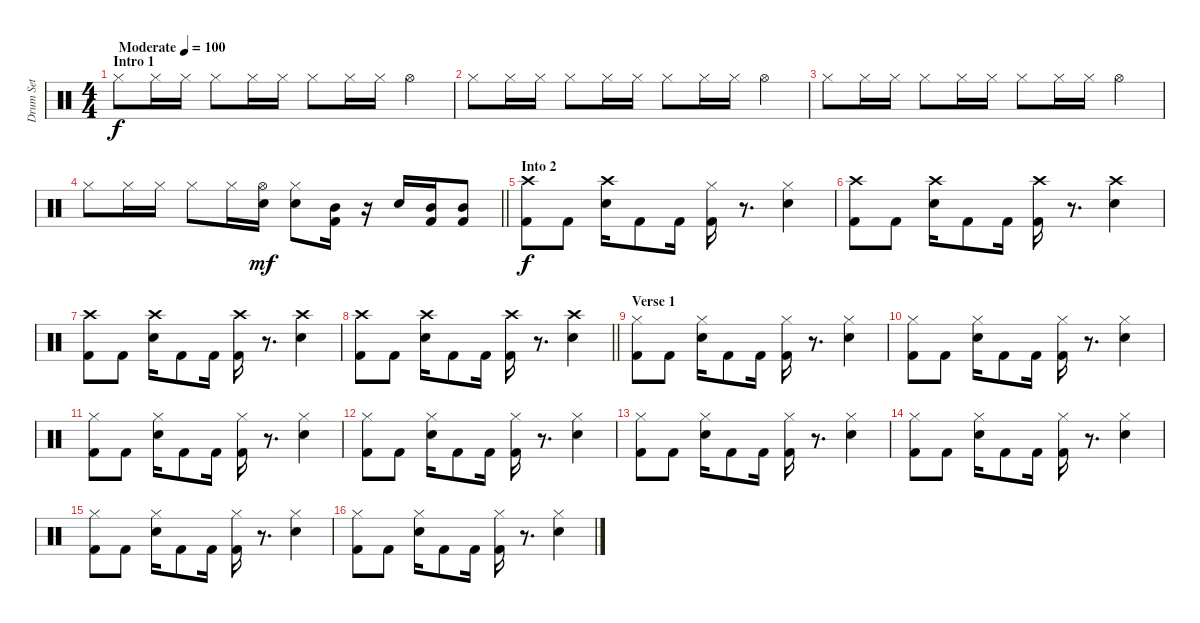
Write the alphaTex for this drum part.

\track ("Drum Set" "Drum Set") {instrument percussion}
\staff {score}
\articulation defaults
\ts (4 4)
\section ("" "Intro 1")
\tempo (100 "Moderate")
\clef neutral
\ks c "Hi-Hat (closed)".8{dy f} "Hi-Hat (closed)".16 "Hi-Hat (closed)".16 "Hi-Hat (closed)".8 "Hi-Hat (closed)".16 "Hi-Hat (closed)".16 "Hi-Hat (closed)".8 "Hi-Hat (closed)".16 "Hi-Hat (closed)".16 "Hi-Hat (open)".4
|
"Hi-Hat (closed)".8 "Hi-Hat (closed)".16 "Hi-Hat (closed)".16 "Hi-Hat (closed)".8 "Hi-Hat (closed)".16 "Hi-Hat (closed)".16 "Hi-Hat (closed)".8 "Hi-Hat (closed)".16 "Hi-Hat (closed)".16 "Hi-Hat (open)".4 |
"Hi-Hat (closed)".8 "Hi-Hat (closed)".16 "Hi-Hat (closed)".16 "Hi-Hat (closed)".8 "Hi-Hat (closed)".16 "Hi-Hat (closed)".16 "Hi-Hat (closed)".8 "Hi-Hat (closed)".16 "Hi-Hat (closed)".16 "Hi-Hat (open)".4 |
\barLineRight lightlight "Hi-Hat (closed)".8 "Hi-Hat (closed)".16 "Hi-Hat (closed)".16 "Hi-Hat (closed)".8 "Hi-Hat (closed)".16
("Hi-Hat (open)" "Snare (hit) 2").16{dy mf} ("Hi-Hat (closed)" "Snare (hit) 2").8 ("Mid Tom (hit)" "Kick (hit) 2").16 r.16 "Snare (hit) 2".16 ("Mid Tom (hit)" "Kick (hit) 2").16 ("Mid Tom (hit)" "Kick (hit) 2").8 |
\section ("" "Into 2")
("Crash high (hit)" "Kick (hit) 2").8{dy f} "Kick (hit) 2".8 ("Crash high (hit)" "Snare (hit) 2").16 "Kick (hit) 2".8 "Kick (hit) 2".16 ("Hi-Hat (closed)" "Kick (hit) 2").16 r.8{d} ("Hi-Hat (closed)" "Snare (hit) 2").4 |
("Crash high (hit)" "Kick (hit) 2").8 "Kick (hit) 2".8 ("Crash high (hit)" "Snare (hit) 2").16 "Kick (hit) 2".8 "Kick (hit) 2".16 ("Crash high (hit)" "Kick (hit) 2").16 r.8{d} ("Crash high (hit)" "Snare (hit) 2").4 |
("Crash high (hit)" "Kick (hit) 2").8 "Kick (hit) 2".8 ("Crash high (hit)" "Snare (hit) 2").16 "Kick (hit) 2".8 "Kick (hit) 2".16 ("Crash high (hit)" "Kick (hit) 2").16 r.8{d} ("Crash high (hit)" "Snare (hit) 2").4 |
\barLineRight lightlight
("Crash high (hit)" "Kick (hit) 2").8 "Kick (hit) 2".8 ("Crash high (hit)" "Snare (hit) 2").16 "Kick (hit) 2".8 "Kick (hit) 2".16 ("Crash high (hit)" "Kick (hit) 2").16 r.8{d} ("Crash high (hit)" "Snare (hit) 2").4 |
\section ("" "Verse 1")
("Hi-Hat (closed)" "Kick (hit) 2").8 "Kick (hit) 2".8 ("Hi-Hat (closed)" "Snare (hit) 2").16 "Kick (hit) 2".8 "Kick (hit) 2".16 ("Hi-Hat (closed)" "Kick (hit) 2").16 r.8{d} ("Hi-Hat (closed)" "Snare (hit) 2").4 |
("Hi-Hat (closed)" "Kick (hit) 2").8 "Kick (hit) 2".8 ("Hi-Hat (closed)" "Snare (hit) 2").16 "Kick (hit) 2".8 "Kick (hit) 2".16 ("Hi-Hat (closed)" "Kick (hit) 2").16 r.8{d} ("Hi-Hat (closed)" "Snare (hit) 2").4 |
("Hi-Hat (closed)" "Kick (hit) 2").8 "Kick (hit) 2".8 ("Hi-Hat (closed)" "Snare (hit) 2").16 "Kick (hit) 2".8 "Kick (hit) 2".16 ("Hi-Hat (closed)" "Kick (hit) 2").16 r.8{d} ("Hi-Hat (closed)" "Snare (hit) 2").4 |
("Hi-Hat (closed)" "Kick (hit) 2").8 "Kick (hit) 2".8 ("Hi-Hat (closed)" "Snare (hit) 2").16 "Kick (hit) 2".8 "Kick (hit) 2".16 ("Hi-Hat (closed)" "Kick (hit) 2").16 r.8{d} ("Hi-Hat (closed)" "Snare (hit) 2").4 |
("Hi-Hat (closed)" "Kick (hit) 2").8 "Kick (hit) 2".8 ("Hi-Hat (closed)" "Snare (hit) 2").16 "Kick (hit) 2".8 "Kick (hit) 2".16 ("Hi-Hat (closed)" "Kick (hit) 2").16 r.8{d} ("Hi-Hat (closed)" "Snare (hit) 2").4 |
("Hi-Hat (closed)" "Kick (hit) 2").8 "Kick (hit) 2".8 ("Hi-Hat (closed)" "Snare (hit) 2").16 "Kick (hit) 2".8 "Kick (hit) 2".16 ("Hi-Hat (closed)" "Kick (hit) 2").16 r.8{d} ("Hi-Hat (closed)" "Snare (hit) 2").4 |
("Hi-Hat (closed)" "Kick (hit) 2").8 "Kick (hit) 2".8 ("Hi-Hat (closed)" "Snare (hit) 2").16 "Kick (hit) 2".8 "Kick (hit) 2".16 ("Hi-Hat (closed)" "Kick (hit) 2").16 r.8{d} ("Hi-Hat (closed)" "Snare (hit) 2").4 |
("Hi-Hat (closed)" "Kick (hit) 2").8 "Kick (hit) 2".8 ("Hi-Hat (closed)" "Snare (hit) 2").16 "Kick (hit) 2".8 "Kick (hit) 2".16 ("Hi-Hat (closed)" "Kick (hit) 2").16 r.8{d} ("Hi-Hat (closed)" "Snare (hit) 2").4
